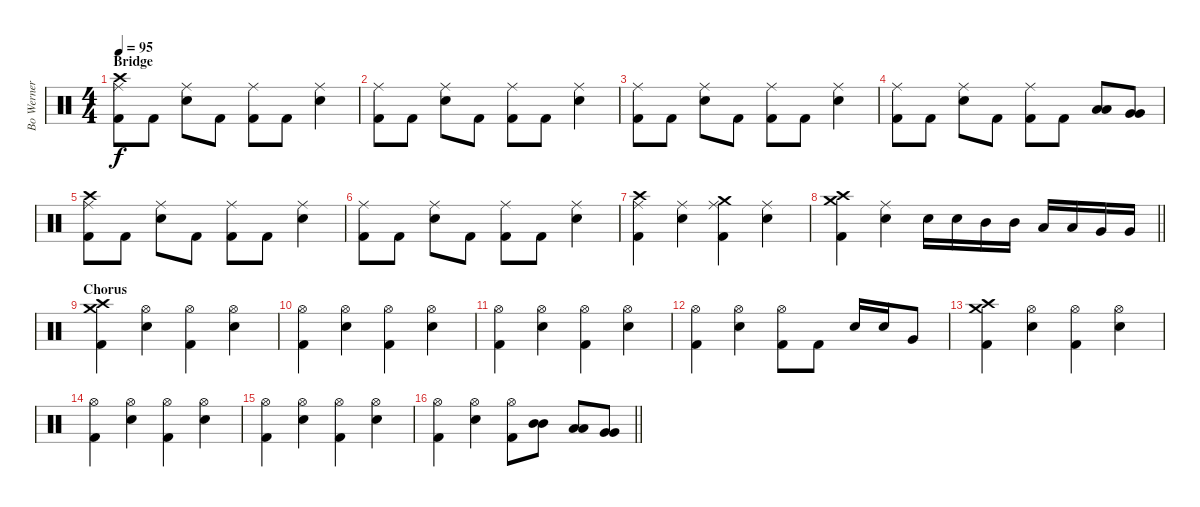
\track ("Bo Werner" "Bo Werner") {instrument percussion}
\staff {score}
\articulation defaults
\ts (4 4)
\section ("" "Bridge")
\tempo 95
\clef neutral
\ks c
("Crash high (hit)" "Ride (middle)" "Kick (hit) 2").8{dy f} "Kick (hit) 2".8 ("Ride (middle)" "Snare (hit) 2").8 "Kick (hit) 2".8 ("Ride (middle)" "Kick (hit) 2").8 "Kick (hit) 2".8 ("Ride (middle)" "Snare (hit) 2").4 |
("Ride (middle)" "Kick (hit) 2").8 "Kick (hit) 2".8 ("Ride (middle)" "Snare (hit) 2").8 "Kick (hit) 2".8 ("Ride (middle)" "Kick (hit) 2").8 "Kick (hit) 2".8 ("Ride (middle)" "Snare (hit) 2").4 |
("Ride (middle)" "Kick (hit) 2").8 "Kick (hit) 2".8 ("Ride (middle)" "Snare (hit) 2").8 "Kick (hit) 2".8 ("Ride (middle)" "Kick (hit) 2").8 "Kick (hit) 2".8 ("Ride (middle)" "Snare (hit) 2").4 |
("Ride (middle)" "Kick (hit) 2").8 "Kick (hit) 2".8 ("Ride (middle)" "Snare (hit) 2").8 "Kick (hit) 2".8 ("Ride (middle)" "Kick (hit) 2").8 "Kick (hit) 2".8 ("Low Tom (hit)" "Low Tom (hit)").8 ("Very Low Tom (hit)" "Very Low Tom (hit)").8 |
("Crash high (hit)" "Ride (middle)" "Kick (hit) 2").8 "Kick (hit) 2".8 ("Ride (middle)" "Snare (hit) 2").8 "Kick (hit) 2".8 ("Ride (middle)" "Kick (hit) 2").8 "Kick (hit) 2".8 ("Ride (middle)" "Snare (hit) 2").4 |
("Ride (middle)" "Kick (hit) 2").8 "Kick (hit) 2".8 ("Ride (middle)" "Snare (hit) 2").8 "Kick (hit) 2".8 ("Ride (middle)" "Kick (hit) 2").8 "Kick (hit) 2".8 ("Ride (middle)" "Snare (hit) 2").4 |
("Crash high (hit)" "Ride (middle)" "Kick (hit) 2").4 ("Ride (middle)" "Snare (hit) 2").4 ("Crash medium (hit)" "Ride (middle)" "Kick (hit) 2").4 ("Ride (middle)" "Snare (hit) 2").4 |
\barLineRight lightlight
("Crash high (hit)" "Crash medium (hit)" "Kick (hit) 2").4 ("Ride (middle)" "Snare (hit) 2").4 "Snare (hit) 2".16 "Snare (hit) 2".16 "Mid Tom (hit)".16 "Mid Tom (hit)".16 "Low Tom (hit)".16 "Low Tom (hit)".16 "Very Low Tom (hit)".16 "Very Low Tom (hit)".16 |
\section ("" "Chorus")
("Crash medium (hit)" "Crash high (hit)" "Kick (hit) 2").4 ("Hi-Hat (open)" "Snare (hit) 2").4 ("Hi-Hat (open)" "Kick (hit) 2").4 ("Hi-Hat (open)" "Snare (hit) 2").4 |
("Hi-Hat (open)" "Kick (hit) 2").4 ("Hi-Hat (open)" "Snare (hit) 2").4 ("Hi-Hat (open)" "Kick (hit) 2").4 ("Hi-Hat (open)" "Snare (hit) 2").4 |
("Hi-Hat (open)" "Kick (hit) 2").4 ("Hi-Hat (open)" "Snare (hit) 2").4 ("Hi-Hat (open)" "Kick (hit) 2").4 ("Hi-Hat (open)" "Snare (hit) 2").4 |
("Hi-Hat (open)" "Kick (hit) 2").4 ("Hi-Hat (open)" "Snare (hit) 2").4 ("Hi-Hat (open)" "Kick (hit) 2").8 "Kick (hit) 2".8 "Snare (hit) 2".16 "Snare (hit) 2".16 "Very Low Tom (hit)".8 |
("Crash high (hit)" "Crash medium (hit)" "Kick (hit) 2").4 ("Hi-Hat (open)" "Snare (hit) 2").4 ("Hi-Hat (open)" "Kick (hit) 2").4 ("Hi-Hat (open)" "Snare (hit) 2").4 |
("Hi-Hat (open)" "Kick (hit) 2").4 ("Hi-Hat (open)" "Snare (hit) 2").4 ("Hi-Hat (open)" "Kick (hit) 2").4 ("Hi-Hat (open)" "Snare (hit) 2").4 |
("Hi-Hat (open)" "Kick (hit) 2").4 ("Hi-Hat (open)" "Snare (hit) 2").4 ("Hi-Hat (open)" "Kick (hit) 2").4 ("Hi-Hat (open)" "Snare (hit) 2").4 |
\barLineRight lightlight
("Hi-Hat (open)" "Kick (hit) 2").4 ("Hi-Hat (open)" "Snare (hit) 2").4 ("Hi-Hat (open)" "Kick (hit) 2").8 ("Mid Tom (hit)" "Mid Tom (hit)").8 ("Low Tom (hit)" "Low Tom (hit)").8 ("Very Low Tom (hit)" "Very Low Tom (hit)").8
